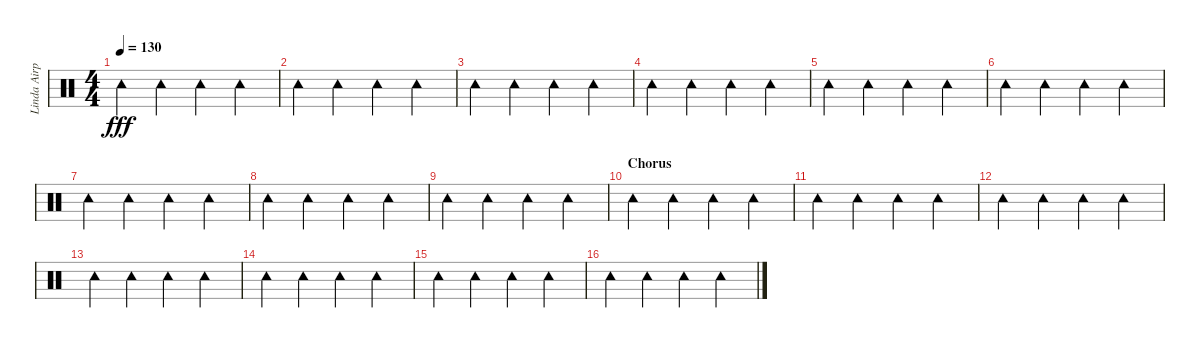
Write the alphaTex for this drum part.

\track ("Linda Airplane" "Linda Airp") {instrument percussion}
\staff {score}
\articulation defaults
\ts (4 4)
\tempo 130
\clef neutral
\ks c "Tambourine (hit)".4{dy fff} "Tambourine (hit)".4 "Tambourine (hit)".4 "Tambourine (hit)".4
|
"Tambourine (hit)".4 "Tambourine (hit)".4 "Tambourine (hit)".4 "Tambourine (hit)".4 |
"Tambourine (hit)".4 "Tambourine (hit)".4 "Tambourine (hit)".4 "Tambourine (hit)".4 |
"Tambourine (hit)".4 "Tambourine (hit)".4 "Tambourine (hit)".4 "Tambourine (hit)".4 |
"Tambourine (hit)".4 "Tambourine (hit)".4 "Tambourine (hit)".4 "Tambourine (hit)".4 |
"Tambourine (hit)".4 "Tambourine (hit)".4 "Tambourine (hit)".4 "Tambourine (hit)".4 |
"Tambourine (hit)".4 "Tambourine (hit)".4 "Tambourine (hit)".4 "Tambourine (hit)".4 |
"Tambourine (hit)".4 "Tambourine (hit)".4 "Tambourine (hit)".4 "Tambourine (hit)".4 |
"Tambourine (hit)".4 "Tambourine (hit)".4 "Tambourine (hit)".4 "Tambourine (hit)".4 |
\section ("" "Chorus")
"Tambourine (hit)".4 "Tambourine (hit)".4 "Tambourine (hit)".4 "Tambourine (hit)".4 |
"Tambourine (hit)".4 "Tambourine (hit)".4 "Tambourine (hit)".4 "Tambourine (hit)".4 |
"Tambourine (hit)".4 "Tambourine (hit)".4 "Tambourine (hit)".4 "Tambourine (hit)".4 |
"Tambourine (hit)".4 "Tambourine (hit)".4 "Tambourine (hit)".4 "Tambourine (hit)".4 |
"Tambourine (hit)".4 "Tambourine (hit)".4 "Tambourine (hit)".4 "Tambourine (hit)".4 |
"Tambourine (hit)".4 "Tambourine (hit)".4 "Tambourine (hit)".4 "Tambourine (hit)".4 |
"Tambourine (hit)".4 "Tambourine (hit)".4 "Tambourine (hit)".4 "Tambourine (hit)".4
